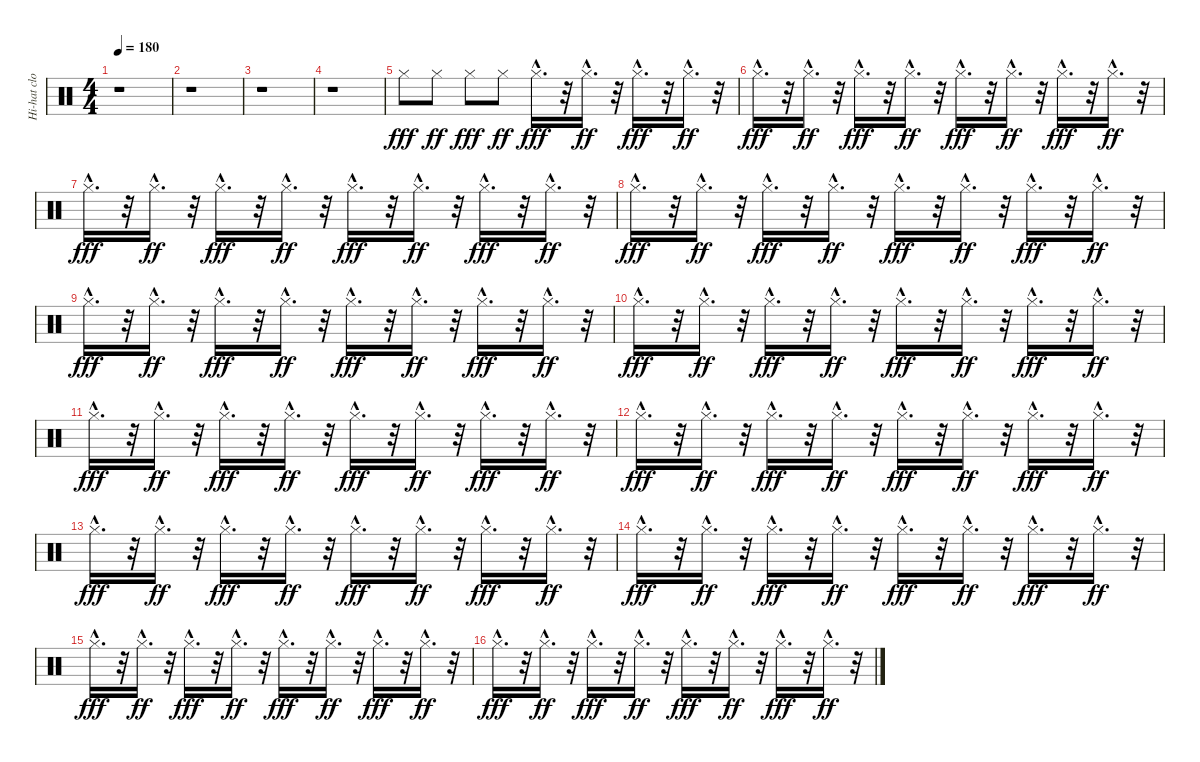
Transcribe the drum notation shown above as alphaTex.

\track ("Hi-hat closed" "Hi-hat clo") {instrument percussion}
\staff {score}
\articulation defaults
\ts (4 4)
\tempo 180
\clef neutral
\ks c
r.1{dy fff} |
r.1 |
r.1 |
r.1 |
"Hi-Hat (closed)".8 "Hi-Hat (closed)".8{dy ff} "Hi-Hat (closed)".8{dy fff} "Hi-Hat (closed)".8{dy ff} "Hi-Hat (closed)"{hac}.16{d dy fff} r.32 "Hi-Hat (closed)"{hac}.16{d dy ff} r.32 "Hi-Hat (closed)"{hac}.16{d dy fff} r.32 "Hi-Hat (closed)"{hac}.16{d dy ff} r.32 |
"Hi-Hat (closed)"{hac}.16{d dy fff} r.32 "Hi-Hat (closed)"{hac}.16{d dy ff} r.32 "Hi-Hat (closed)"{hac}.16{d dy fff} r.32 "Hi-Hat (closed)"{hac}.16{d dy ff} r.32 "Hi-Hat (closed)"{hac}.16{d dy fff} r.32 "Hi-Hat (closed)"{hac}.16{d dy ff} r.32 "Hi-Hat (closed)"{hac}.16{d dy fff} r.32 "Hi-Hat (closed)"{hac}.16{d dy ff} r.32 |
"Hi-Hat (closed)"{hac}.16{d dy fff} r.32 "Hi-Hat (closed)"{hac}.16{d dy ff} r.32 "Hi-Hat (closed)"{hac}.16{d dy fff} r.32 "Hi-Hat (closed)"{hac}.16{d dy ff} r.32 "Hi-Hat (closed)"{hac}.16{d dy fff} r.32 "Hi-Hat (closed)"{hac}.16{d dy ff} r.32 "Hi-Hat (closed)"{hac}.16{d dy fff} r.32 "Hi-Hat (closed)"{hac}.16{d dy ff} r.32 |
"Hi-Hat (closed)"{hac}.16{d dy fff} r.32 "Hi-Hat (closed)"{hac}.16{d dy ff} r.32 "Hi-Hat (closed)"{hac}.16{d dy fff} r.32 "Hi-Hat (closed)"{hac}.16{d dy ff} r.32 "Hi-Hat (closed)"{hac}.16{d dy fff} r.32 "Hi-Hat (closed)"{hac}.16{d dy ff} r.32 "Hi-Hat (closed)"{hac}.16{d dy fff} r.32 "Hi-Hat (closed)"{hac}.16{d dy ff} r.32 |
"Hi-Hat (closed)"{hac}.16{d dy fff} r.32 "Hi-Hat (closed)"{hac}.16{d dy ff} r.32 "Hi-Hat (closed)"{hac}.16{d dy fff} r.32 "Hi-Hat (closed)"{hac}.16{d dy ff} r.32 "Hi-Hat (closed)"{hac}.16{d dy fff} r.32 "Hi-Hat (closed)"{hac}.16{d dy ff} r.32 "Hi-Hat (closed)"{hac}.16{d dy fff} r.32 "Hi-Hat (closed)"{hac}.16{d dy ff} r.32 |
"Hi-Hat (closed)"{hac}.16{d dy fff} r.32 "Hi-Hat (closed)"{hac}.16{d dy ff} r.32 "Hi-Hat (closed)"{hac}.16{d dy fff} r.32 "Hi-Hat (closed)"{hac}.16{d dy ff} r.32 "Hi-Hat (closed)"{hac}.16{d dy fff} r.32 "Hi-Hat (closed)"{hac}.16{d dy ff} r.32 "Hi-Hat (closed)"{hac}.16{d dy fff} r.32 "Hi-Hat (closed)"{hac}.16{d dy ff} r.32 |
"Hi-Hat (closed)"{hac}.16{d dy fff} r.32 "Hi-Hat (closed)"{hac}.16{d dy ff} r.32 "Hi-Hat (closed)"{hac}.16{d dy fff} r.32 "Hi-Hat (closed)"{hac}.16{d dy ff} r.32 "Hi-Hat (closed)"{hac}.16{d dy fff} r.32 "Hi-Hat (closed)"{hac}.16{d dy ff} r.32 "Hi-Hat (closed)"{hac}.16{d dy fff} r.32 "Hi-Hat (closed)"{hac}.16{d dy ff} r.32 |
"Hi-Hat (closed)"{hac}.16{d dy fff} r.32 "Hi-Hat (closed)"{hac}.16{d dy ff} r.32 "Hi-Hat (closed)"{hac}.16{d dy fff} r.32 "Hi-Hat (closed)"{hac}.16{d dy ff} r.32 "Hi-Hat (closed)"{hac}.16{d dy fff} r.32 "Hi-Hat (closed)"{hac}.16{d dy ff} r.32 "Hi-Hat (closed)"{hac}.16{d dy fff} r.32 "Hi-Hat (closed)"{hac}.16{d dy ff} r.32 |
"Hi-Hat (closed)"{hac}.16{d dy fff} r.32 "Hi-Hat (closed)"{hac}.16{d dy ff} r.32 "Hi-Hat (closed)"{hac}.16{d dy fff} r.32 "Hi-Hat (closed)"{hac}.16{d dy ff} r.32 "Hi-Hat (closed)"{hac}.16{d dy fff} r.32 "Hi-Hat (closed)"{hac}.16{d dy ff} r.32 "Hi-Hat (closed)"{hac}.16{d dy fff} r.32 "Hi-Hat (closed)"{hac}.16{d dy ff} r.32 |
"Hi-Hat (closed)"{hac}.16{d dy fff} r.32 "Hi-Hat (closed)"{hac}.16{d dy ff} r.32 "Hi-Hat (closed)"{hac}.16{d dy fff} r.32 "Hi-Hat (closed)"{hac}.16{d dy ff} r.32 "Hi-Hat (closed)"{hac}.16{d dy fff} r.32 "Hi-Hat (closed)"{hac}.16{d dy ff} r.32 "Hi-Hat (closed)"{hac}.16{d dy fff} r.32 "Hi-Hat (closed)"{hac}.16{d dy ff} r.32 |
"Hi-Hat (closed)"{hac}.16{d dy fff} r.32 "Hi-Hat (closed)"{hac}.16{d dy ff} r.32 "Hi-Hat (closed)"{hac}.16{d dy fff} r.32 "Hi-Hat (closed)"{hac}.16{d dy ff} r.32 "Hi-Hat (closed)"{hac}.16{d dy fff} r.32 "Hi-Hat (closed)"{hac}.16{d dy ff} r.32 "Hi-Hat (closed)"{hac}.16{d dy fff} r.32 "Hi-Hat (closed)"{hac}.16{d dy ff} r.32 |
"Hi-Hat (closed)"{hac}.16{d dy fff} r.32 "Hi-Hat (closed)"{hac}.16{d dy ff} r.32 "Hi-Hat (closed)"{hac}.16{d dy fff} r.32 "Hi-Hat (closed)"{hac}.16{d dy ff} r.32 "Hi-Hat (closed)"{hac}.16{d dy fff} r.32 "Hi-Hat (closed)"{hac}.16{d dy ff} r.32 "Hi-Hat (closed)"{hac}.16{d dy fff} r.32 "Hi-Hat (closed)"{hac}.16{d dy ff} r.32
